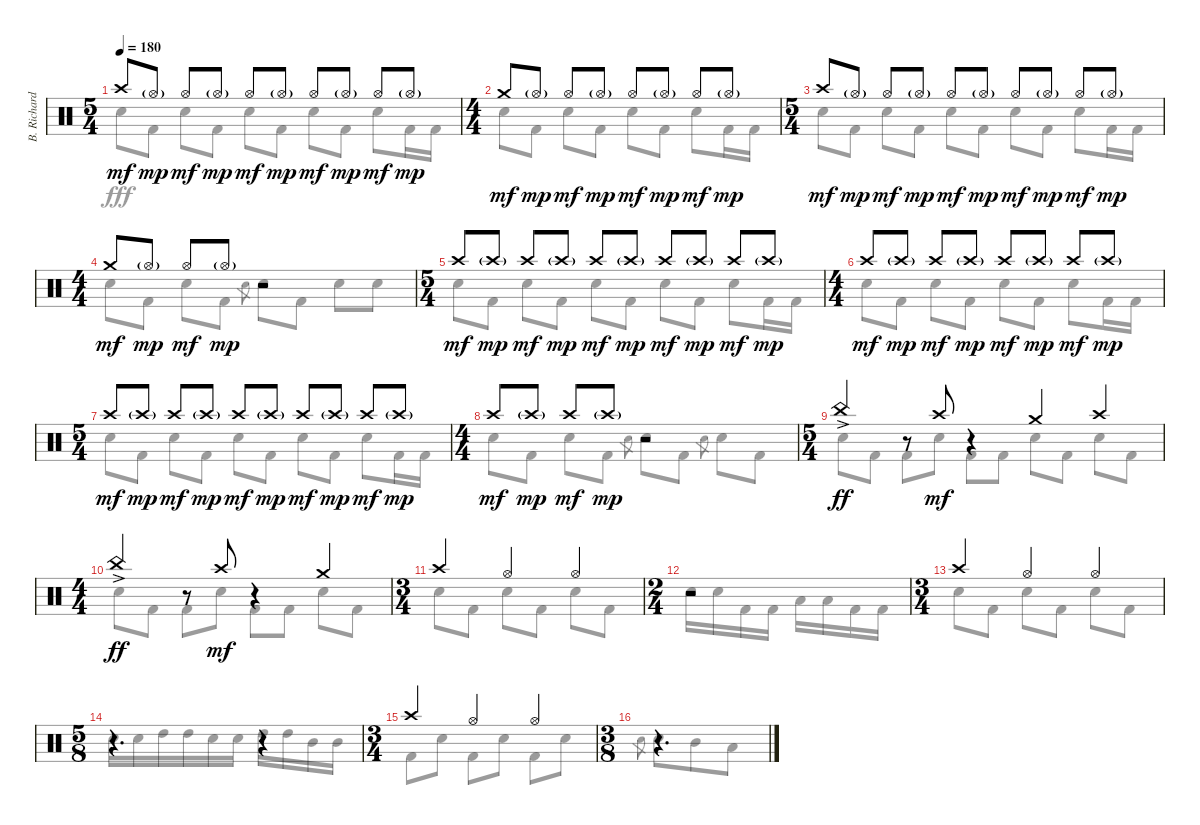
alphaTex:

\track ("B. Richardson Drums" "B. Richard") {instrument percussion}
\staff {score}
\articulation defaults
\voice
\ts (5 4)
\tempo 180
\clef neutral
\ks c "Crash high (hit)".8{dy mf} "Hi-Hat (open)"{g}.8{dy mp} "Hi-Hat (open)".8{dy mf} "Hi-Hat (open)"{g}.8{dy mp} "Hi-Hat (open)".8{dy mf} "Hi-Hat (open)"{g}.8{dy mp} "Hi-Hat (open)".8{dy mf} "Hi-Hat (open)"{g}.8{dy mp} "Hi-Hat (open)".8{dy mf} "Hi-Hat (open)"{g}.8{dy mp}
|
\ts (4 4)
"Crash medium (hit)".8{dy mf} "Hi-Hat (open)"{g}.8{dy mp} "Hi-Hat (open)".8{dy mf} "Hi-Hat (open)"{g}.8{dy mp} "Hi-Hat (open)".8{dy mf} "Hi-Hat (open)"{g}.8{dy mp} "Hi-Hat (open)".8{dy mf} "Hi-Hat (open)"{g}.8{dy mp} |
\ts (5 4)
"Crash high (hit)".8{dy mf} "Hi-Hat (open)"{g}.8{dy mp} "Hi-Hat (open)".8{dy mf} "Hi-Hat (open)"{g}.8{dy mp} "Hi-Hat (open)".8{dy mf} "Hi-Hat (open)"{g}.8{dy mp} "Hi-Hat (open)".8{dy mf} "Hi-Hat (open)"{g}.8{dy mp} "Hi-Hat (open)".8{dy mf} "Hi-Hat (open)"{g}.8{dy mp} |
\ts (4 4)
"Crash medium (hit)".8{dy mf} "Hi-Hat (open)"{g}.8{dy mp} "Hi-Hat (open)".8{dy mf} "Hi-Hat (open)"{g}.8{dy mp} r.2 |
\ts (5 4)
"Crash high (hit)".8{dy mf} "Crash high (hit)"{g}.8{dy mp} "Crash high (hit)".8{dy mf} "Crash high (hit)"{g}.8{dy mp} "Crash high (hit)".8{dy mf} "Crash high (hit)"{g}.8{dy mp} "Crash high (hit)".8{dy mf} "Crash high (hit)"{g}.8{dy mp} "Crash high (hit)".8{dy mf} "Crash high (hit)"{g}.8{dy mp} |
\ts (4 4)
"Crash high (hit)".8{dy mf} "Crash high (hit)"{g}.8{dy mp} "Crash high (hit)".8{dy mf} "Crash high (hit)"{g}.8{dy mp} "Crash high (hit)".8{dy mf} "Crash high (hit)"{g}.8{dy mp} "Crash high (hit)".8{dy mf} "Crash high (hit)"{g}.8{dy mp} |
\ts (5 4)
"Crash high (hit)".8{dy mf} "Crash high (hit)"{g}.8{dy mp} "Crash high (hit)".8{dy mf} "Crash high (hit)"{g}.8{dy mp} "Crash high (hit)".8{dy mf} "Crash high (hit)"{g}.8{dy mp} "Crash high (hit)".8{dy mf} "Crash high (hit)"{g}.8{dy mp} "Crash high (hit)".8{dy mf} "Crash high (hit)"{g}.8{dy mp} |
\ts (4 4)
"Crash high (hit)".8{dy mf} "Crash high (hit)"{g}.8{dy mp} "Crash high (hit)".8{dy mf} "Crash high (hit)"{g}.8{dy mp} r.2 |
\ts (5 4)
"China (hit)"{ac}.4{dy ff} r.8 "Crash high (hit)".8{dy mf} r.4 "Crash medium (hit)".4 "Crash high (hit)".4 |
\ts (4 4)
"China (hit)"{ac}.4{dy ff} r.8 "Crash high (hit)".8{dy mf} r.4 "Crash medium (hit)".4 |
\ts (3 4)
"Crash high (hit)".4 "Hi-Hat (open)".4 "Hi-Hat (open)".4 |
\ts (2 4)
r.2 |
\ts (3 4)
"Crash high (hit)".4 "Hi-Hat (open)".4 "Hi-Hat (open)".4 |
\ts (5 8)
r.4{d} r.4 |
\ts (3 4)
"Crash high (hit)".4 "Hi-Hat (open)".4 "Hi-Hat (open)".4 |
\ts (3 8)
r.4{d}
\voice
\clef neutral
\ottava regular
\simile none
\ks c "Electric Snare (hit)".8{dy fff} "Kick (hit) 2".8 "Electric Snare (hit)".8 "Kick (hit) 2".8 "Electric Snare (hit)".8 "Kick (hit) 2".8 "Electric Snare (hit)".8 "Kick (hit) 2".8 "Electric Snare (hit)".8 "Kick (hit) 2".16 "Kick (hit) 2".16
|
"Electric Snare (hit)".8 "Kick (hit) 2".8 "Electric Snare (hit)".8 "Kick (hit) 2".8 "Electric Snare (hit)".8 "Kick (hit) 2".8 "Electric Snare (hit)".8 "Kick (hit) 2".16 "Kick (hit) 2".16 |
"Electric Snare (hit)".8 "Kick (hit) 2".8 "Electric Snare (hit)".8 "Kick (hit) 2".8 "Electric Snare (hit)".8 "Kick (hit) 2".8 "Electric Snare (hit)".8 "Kick (hit) 2".8 "Electric Snare (hit)".8 "Kick (hit) 2".16 "Kick (hit) 2".16 |
"Electric Snare (hit)".8 "Kick (hit) 2".8 "Electric Snare (hit)".8 "Kick (hit) 2".8 "Electric Snare (hit)".8{gr} "Electric Snare (hit)".8 "Kick (hit) 2".8 "Electric Snare (hit)".8 "Electric Snare (hit)".8 |
"Electric Snare (hit)".8 "Kick (hit) 2".8 "Electric Snare (hit)".8 "Kick (hit) 2".8 "Electric Snare (hit)".8 "Kick (hit) 2".8 "Electric Snare (hit)".8 "Kick (hit) 2".8 "Electric Snare (hit)".8 "Kick (hit) 2".16 "Kick (hit) 2".16 |
"Electric Snare (hit)".8 "Kick (hit) 2".8 "Electric Snare (hit)".8 "Kick (hit) 2".8 "Electric Snare (hit)".8 "Kick (hit) 2".8 "Electric Snare (hit)".8 "Kick (hit) 2".16 "Kick (hit) 2".16 |
"Electric Snare (hit)".8 "Kick (hit) 2".8 "Electric Snare (hit)".8 "Kick (hit) 2".8 "Electric Snare (hit)".8 "Kick (hit) 2".8 "Electric Snare (hit)".8 "Kick (hit) 2".8 "Electric Snare (hit)".8 "Kick (hit) 2".16 "Kick (hit) 2".16 |
"Electric Snare (hit)".8 "Kick (hit) 2".8 "Electric Snare (hit)".8 "Kick (hit) 2".8 "Electric Snare (hit)".8{gr} "Electric Snare (hit)".8 "Kick (hit) 2".8 "Electric Snare (hit)".8{gr} "Electric Snare (hit)".8 "Kick (hit) 2".8 |
"Electric Snare (hit)".8 "Kick (hit) 2".8 "Kick (hit) 2".8 "Electric Snare (hit)".8 "Kick (hit) 2".8 "Kick (hit) 2".8 "Electric Snare (hit)".8 "Kick (hit) 2".8 "Electric Snare (hit)".8 "Kick (hit) 2".8 |
"Electric Snare (hit)".8 "Kick (hit) 2".8 "Kick (hit) 2".8 "Electric Snare (hit)".8 "Kick (hit) 2".8 "Kick (hit) 2".8 "Electric Snare (hit)".8 "Kick (hit) 2".8 |
"Electric Snare (hit)".8 "Kick (hit) 2".8 "Electric Snare (hit)".8 "Kick (hit) 2".8 "Electric Snare (hit)".8 "Kick (hit) 2".8 |
"Electric Snare (hit)".16 "Electric Snare (hit)".16 "Kick (hit) 2".16 "Kick (hit) 2".16 "Low Tom (hit)".16 "Low Tom (hit)".16 "Kick (hit) 2".16 "Kick (hit) 2".16 |
"Electric Snare (hit)".8 "Kick (hit) 2".8 "Electric Snare (hit)".8 "Kick (hit) 2".8 "Electric Snare (hit)".8 "Kick (hit) 2".8 |
"Electric Snare (hit)".16 "Electric Snare (hit)".16 "High Tom (hit)".16 "High Tom (hit)".16 "Electric Snare (hit)".16 "Electric Snare (hit)".16 "High Tom (hit)".16 "High Tom (hit)".16 "Mid Tom (hit)".16 "Mid Tom (hit)".16 |
"Kick (hit) 2".8 "Electric Snare (hit)".8 "Kick (hit) 2".8 "Electric Snare (hit)".8 "Kick (hit) 2".8 "Electric Snare (hit)".8 |
"Electric Snare (hit)".8{gr} "Electric Snare (hit)".8 "Mid Tom (hit)".8 "Low Tom (hit)".8
